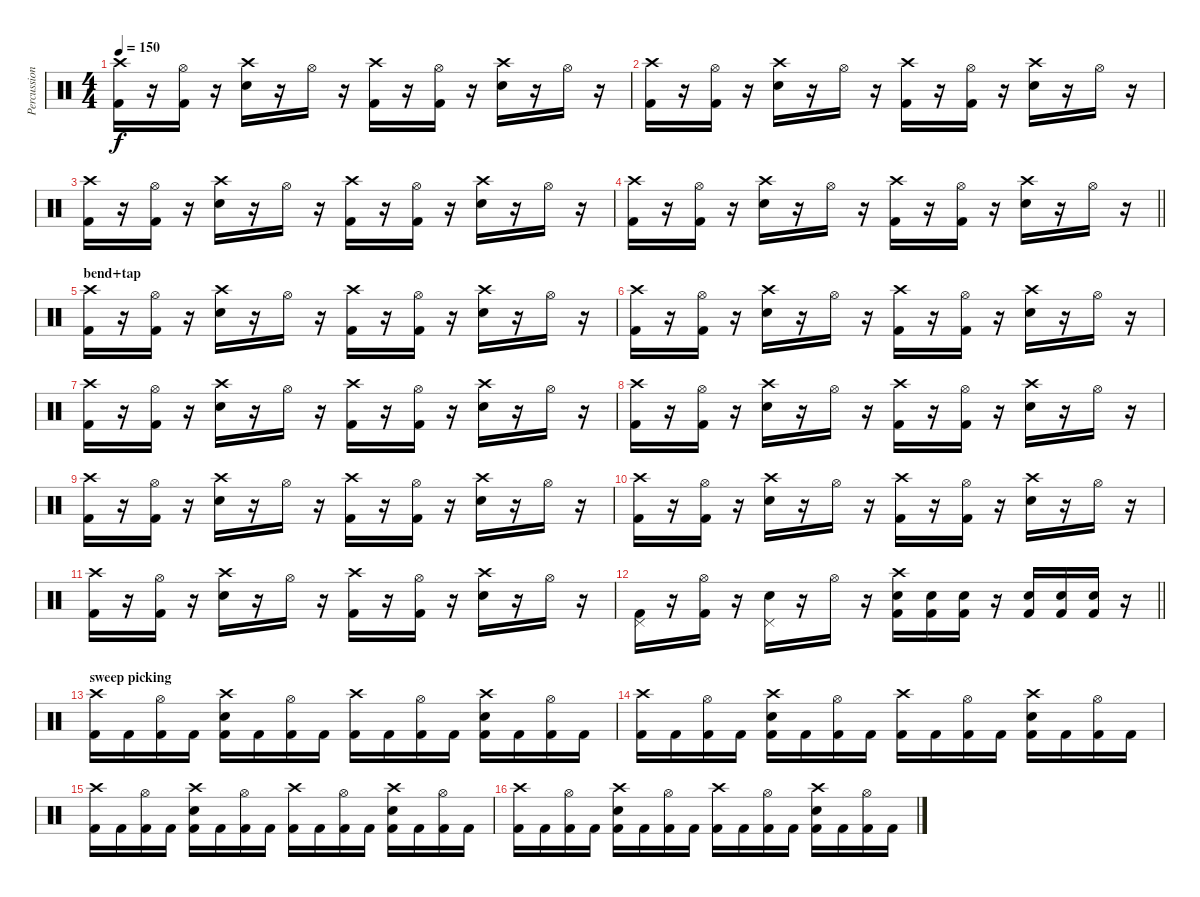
\track ("Percussion" "Percussion") {instrument percussion}
\staff {score}
\articulation defaults
\ts (4 4)
\tempo 150
\clef neutral
\ks c
("Crash high (hit)" "Kick (hit) 2").16{dy f} r.16 ("Hi-Hat (open)" "Kick (hit) 2").16 r.16 ("Crash high (hit)" "Snare (hit) 2").16 r.16 "Hi-Hat (open)".16 r.16 ("Crash high (hit)" "Kick (hit) 2").16 r.16 ("Hi-Hat (open)" "Kick (hit) 2").16 r.16 ("Crash high (hit)" "Snare (hit) 2").16 r.16 "Hi-Hat (open)".16 r.16 |
("Crash high (hit)" "Kick (hit) 2").16 r.16 ("Hi-Hat (open)" "Kick (hit) 2").16 r.16 ("Crash high (hit)" "Snare (hit) 2").16 r.16 "Hi-Hat (open)".16 r.16 ("Crash high (hit)" "Kick (hit) 2").16 r.16 ("Hi-Hat (open)" "Kick (hit) 2").16 r.16 ("Crash high (hit)" "Snare (hit) 2").16 r.16 "Hi-Hat (open)".16 r.16 |
("Crash high (hit)" "Kick (hit) 2").16 r.16 ("Hi-Hat (open)" "Kick (hit) 2").16 r.16 ("Crash high (hit)" "Snare (hit) 2").16 r.16 "Hi-Hat (open)".16 r.16 ("Crash high (hit)" "Kick (hit) 2").16 r.16 ("Hi-Hat (open)" "Kick (hit) 2").16 r.16 ("Crash high (hit)" "Snare (hit) 2").16 r.16 "Hi-Hat (open)".16 r.16 |
\barLineRight lightlight
("Crash high (hit)" "Kick (hit) 2").16 r.16 ("Hi-Hat (open)" "Kick (hit) 2").16 r.16 ("Crash high (hit)" "Snare (hit) 2").16 r.16 "Hi-Hat (open)".16 r.16 ("Crash high (hit)" "Kick (hit) 2").16 r.16 ("Hi-Hat (open)" "Kick (hit) 2").16 r.16 ("Crash high (hit)" "Snare (hit) 2").16 r.16 "Hi-Hat (open)".16 r.16 |
\section ("" "bend+tap")
("Crash high (hit)" "Kick (hit) 2").16 r.16 ("Hi-Hat (open)" "Kick (hit) 2").16 r.16 ("Crash high (hit)" "Snare (hit) 2").16 r.16 "Hi-Hat (open)".16 r.16 ("Crash high (hit)" "Kick (hit) 2").16 r.16 ("Hi-Hat (open)" "Kick (hit) 2").16 r.16 ("Crash high (hit)" "Snare (hit) 2").16 r.16 "Hi-Hat (open)".16 r.16 |
("Crash high (hit)" "Kick (hit) 2").16 r.16 ("Hi-Hat (open)" "Kick (hit) 2").16 r.16 ("Crash high (hit)" "Snare (hit) 2").16 r.16 "Hi-Hat (open)".16 r.16 ("Crash high (hit)" "Kick (hit) 2").16 r.16 ("Hi-Hat (open)" "Kick (hit) 2").16 r.16 ("Crash high (hit)" "Snare (hit) 2").16 r.16 "Hi-Hat (open)".16 r.16 |
("Crash high (hit)" "Kick (hit) 2").16 r.16 ("Hi-Hat (open)" "Kick (hit) 2").16 r.16 ("Crash high (hit)" "Snare (hit) 2").16 r.16 "Hi-Hat (open)".16 r.16 ("Crash high (hit)" "Kick (hit) 2").16 r.16 ("Hi-Hat (open)" "Kick (hit) 2").16 r.16 ("Crash high (hit)" "Snare (hit) 2").16 r.16 "Hi-Hat (open)".16 r.16 |
("Crash high (hit)" "Kick (hit) 2").16 r.16 ("Hi-Hat (open)" "Kick (hit) 2").16 r.16 ("Crash high (hit)" "Snare (hit) 2").16 r.16 "Hi-Hat (open)".16 r.16 ("Crash high (hit)" "Kick (hit) 2").16 r.16 ("Hi-Hat (open)" "Kick (hit) 2").16 r.16 ("Crash high (hit)" "Snare (hit) 2").16 r.16 "Hi-Hat (open)".16 r.16 |
("Crash high (hit)" "Kick (hit) 2").16 r.16 ("Hi-Hat (open)" "Kick (hit) 2").16 r.16 ("Crash high (hit)" "Snare (hit) 2").16 r.16 "Hi-Hat (open)".16 r.16 ("Crash high (hit)" "Kick (hit) 2").16 r.16 ("Hi-Hat (open)" "Kick (hit) 2").16 r.16 ("Crash high (hit)" "Snare (hit) 2").16 r.16 "Hi-Hat (open)".16 r.16 |
("Crash high (hit)" "Kick (hit) 2").16 r.16 ("Hi-Hat (open)" "Kick (hit) 2").16 r.16 ("Crash high (hit)" "Snare (hit) 2").16 r.16 "Hi-Hat (open)".16 r.16 ("Crash high (hit)" "Kick (hit) 2").16 r.16 ("Hi-Hat (open)" "Kick (hit) 2").16 r.16 ("Crash high (hit)" "Snare (hit) 2").16 r.16 "Hi-Hat (open)".16 r.16 |
("Crash high (hit)" "Kick (hit) 2").16 r.16 ("Hi-Hat (open)" "Kick (hit) 2").16 r.16 ("Crash high (hit)" "Snare (hit) 2").16 r.16 "Hi-Hat (open)".16 r.16 ("Crash high (hit)" "Kick (hit) 2").16 r.16 ("Hi-Hat (open)" "Kick (hit) 2").16 r.16 ("Crash high (hit)" "Snare (hit) 2").16 r.16 "Hi-Hat (open)".16 r.16 |
\barLineRight lightlight
("Pedal Hi-Hat (hit)" "Kick (hit) 2").16 r.16 ("Hi-Hat (open)" "Kick (hit) 2").16 r.16 ("Pedal Hi-Hat (hit)" "Snare (hit) 2").16 r.16 "Hi-Hat (open)".16 r.16 ("Crash high (hit)" "Snare (hit) 2" "Kick (hit) 2").16 ("Snare (hit) 2" "Kick (hit) 2").16 ("Snare (hit) 2" "Kick (hit) 2").16 r.16 ("Snare (hit) 2" "Kick (hit) 2").16 ("Snare (hit) 2" "Kick (hit) 2").16 ("Snare (hit) 2" "Kick (hit) 2").16 r.16 |
\section ("" "sweep picking")
("Crash high (hit)" "Kick (hit) 2").16 "Kick (hit) 2".16 ("Hi-Hat (open)" "Kick (hit) 2").16 "Kick (hit) 2".16 ("Crash high (hit)" "Snare (hit) 2" "Kick (hit) 2").16 "Kick (hit) 2".16 ("Hi-Hat (open)" "Kick (hit) 2").16 "Kick (hit) 2".16 ("Crash high (hit)" "Kick (hit) 2").16 "Kick (hit) 2".16 ("Hi-Hat (open)" "Kick (hit) 2").16 "Kick (hit) 2".16 ("Crash high (hit)" "Snare (hit) 2" "Kick (hit) 2").16 "Kick (hit) 2".16 ("Hi-Hat (open)" "Kick (hit) 2").16 "Kick (hit) 2".16 |
("Crash high (hit)" "Kick (hit) 2").16 "Kick (hit) 2".16 ("Hi-Hat (open)" "Kick (hit) 2").16 "Kick (hit) 2".16 ("Crash high (hit)" "Snare (hit) 2" "Kick (hit) 2").16 "Kick (hit) 2".16 ("Hi-Hat (open)" "Kick (hit) 2").16 "Kick (hit) 2".16 ("Crash high (hit)" "Kick (hit) 2").16 "Kick (hit) 2".16 ("Hi-Hat (open)" "Kick (hit) 2").16 "Kick (hit) 2".16 ("Crash high (hit)" "Snare (hit) 2" "Kick (hit) 2").16 "Kick (hit) 2".16 ("Hi-Hat (open)" "Kick (hit) 2").16 "Kick (hit) 2".16 |
("Crash high (hit)" "Kick (hit) 2").16 "Kick (hit) 2".16 ("Hi-Hat (open)" "Kick (hit) 2").16 "Kick (hit) 2".16 ("Crash high (hit)" "Snare (hit) 2" "Kick (hit) 2").16 "Kick (hit) 2".16 ("Hi-Hat (open)" "Kick (hit) 2").16 "Kick (hit) 2".16 ("Crash high (hit)" "Kick (hit) 2").16 "Kick (hit) 2".16 ("Hi-Hat (open)" "Kick (hit) 2").16 "Kick (hit) 2".16 ("Crash high (hit)" "Snare (hit) 2" "Kick (hit) 2").16 "Kick (hit) 2".16 ("Hi-Hat (open)" "Kick (hit) 2").16 "Kick (hit) 2".16 |
("Crash high (hit)" "Kick (hit) 2").16 "Kick (hit) 2".16 ("Hi-Hat (open)" "Kick (hit) 2").16 "Kick (hit) 2".16 ("Crash high (hit)" "Snare (hit) 2" "Kick (hit) 2").16 "Kick (hit) 2".16 ("Hi-Hat (open)" "Kick (hit) 2").16 "Kick (hit) 2".16 ("Crash high (hit)" "Kick (hit) 2").16 "Kick (hit) 2".16 ("Hi-Hat (open)" "Kick (hit) 2").16 "Kick (hit) 2".16 ("Crash high (hit)" "Snare (hit) 2" "Kick (hit) 2").16 "Kick (hit) 2".16 ("Hi-Hat (open)" "Kick (hit) 2").16 "Kick (hit) 2".16
